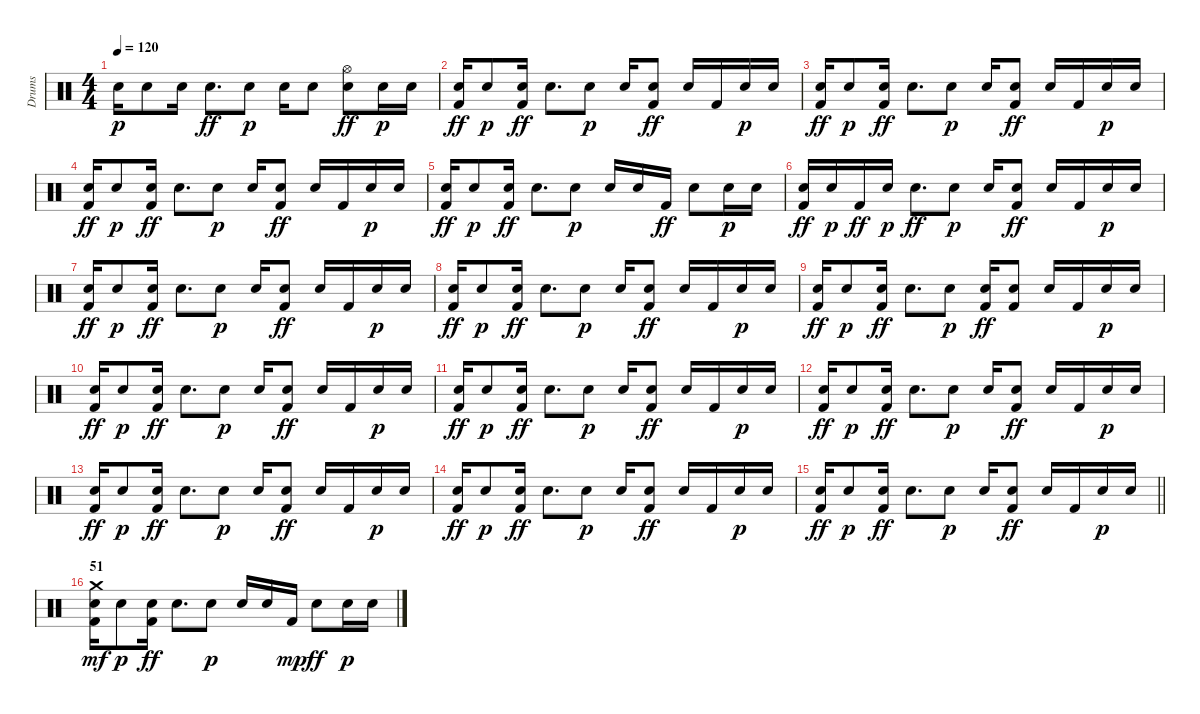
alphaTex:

\track ("Drums" "Drums") {instrument percussion}
\staff {score}
\articulation defaults
\ts (4 4)
\tempo 120
\clef neutral
\ks c "Snare (hit) 2".16{dy p} "Snare (hit) 2".8 "Snare (hit) 2".16 "Snare (hit) 2".8{d dy ff} "Snare (hit) 2".8{dy p} "Snare (hit) 2".16 "Snare (hit) 2".8
("Snare (hit) 2" "Hi-Hat (open)").8{dy ff} "Snare (hit) 2".16{dy p} "Snare (hit) 2".16 |
("Snare (hit) 2" "Kick (hit) 2").16{dy ff} "Snare (hit) 2".8{dy p} ("Snare (hit) 2" "Kick (hit) 2").16{dy ff} "Snare (hit) 2".8{d} "Snare (hit) 2".8{dy p} "Snare (hit) 2".16 ("Snare (hit) 2" "Kick (hit) 2").8{dy ff} "Snare (hit) 2".16 "Kick (hit) 2".16 "Snare (hit) 2".16{dy p} "Snare (hit) 2".16 |
("Snare (hit) 2" "Kick (hit) 2").16{dy ff} "Snare (hit) 2".8{dy p} ("Snare (hit) 2" "Kick (hit) 2").16{dy ff} "Snare (hit) 2".8{d} "Snare (hit) 2".8{dy p} "Snare (hit) 2".16 ("Snare (hit) 2" "Kick (hit) 2").8{dy ff} "Snare (hit) 2".16 "Kick (hit) 2".16 "Snare (hit) 2".16{dy p} "Snare (hit) 2".16 |
("Snare (hit) 2" "Kick (hit) 2").16{dy ff} "Snare (hit) 2".8{dy p} ("Snare (hit) 2" "Kick (hit) 2").16{dy ff} "Snare (hit) 2".8{d} "Snare (hit) 2".8{dy p} "Snare (hit) 2".16 ("Snare (hit) 2" "Kick (hit) 2").8{dy ff} "Snare (hit) 2".16 "Kick (hit) 2".16 "Snare (hit) 2".16{dy p} "Snare (hit) 2".16 |
("Snare (hit) 2" "Kick (hit) 2").16{dy ff} "Snare (hit) 2".8{dy p} ("Snare (hit) 2" "Kick (hit) 2").16{dy ff} "Snare (hit) 2".8{d} "Snare (hit) 2".8{dy p} "Snare (hit) 2".16 "Snare (hit) 2".16 "Kick (hit) 2".16{dy ff} "Snare (hit) 2".8 "Snare (hit) 2".16{dy p} "Snare (hit) 2".16 |
("Snare (hit) 2" "Kick (hit) 2").16{dy ff} "Snare (hit) 2".16{dy p} "Kick (hit) 2".16{dy ff} "Snare (hit) 2".16{dy p} "Snare (hit) 2".8{d dy ff} "Snare (hit) 2".8{dy p} "Snare (hit) 2".16 ("Snare (hit) 2" "Kick (hit) 2").8{dy ff} "Snare (hit) 2".16 "Kick (hit) 2".16 "Snare (hit) 2".16{dy p} "Snare (hit) 2".16 |
("Snare (hit) 2" "Kick (hit) 2").16{dy ff} "Snare (hit) 2".8{dy p} ("Snare (hit) 2" "Kick (hit) 2").16{dy ff} "Snare (hit) 2".8{d} "Snare (hit) 2".8{dy p} "Snare (hit) 2".16 ("Snare (hit) 2" "Kick (hit) 2").8{dy ff} "Snare (hit) 2".16 "Kick (hit) 2".16 "Snare (hit) 2".16{dy p} "Snare (hit) 2".16 |
("Snare (hit) 2" "Kick (hit) 2").16{dy ff} "Snare (hit) 2".8{dy p} ("Snare (hit) 2" "Kick (hit) 2").16{dy ff} "Snare (hit) 2".8{d} "Snare (hit) 2".8{dy p} "Snare (hit) 2".16 ("Snare (hit) 2" "Kick (hit) 2").8{dy ff} "Snare (hit) 2".16 "Kick (hit) 2".16 "Snare (hit) 2".16{dy p} "Snare (hit) 2".16 |
("Snare (hit) 2" "Kick (hit) 2").16{dy ff} "Snare (hit) 2".8{dy p} ("Snare (hit) 2" "Kick (hit) 2").16{dy ff} "Snare (hit) 2".8{d} "Snare (hit) 2".8{dy p} ("Snare (hit) 2" "Kick (hit) 2").16{dy ff} ("Snare (hit) 2" "Kick (hit) 2").8 "Snare (hit) 2".16 "Kick (hit) 2".16 "Snare (hit) 2".16{dy p} "Snare (hit) 2".16 |
("Snare (hit) 2" "Kick (hit) 2").16{dy ff} "Snare (hit) 2".8{dy p} ("Snare (hit) 2" "Kick (hit) 2").16{dy ff} "Snare (hit) 2".8{d} "Snare (hit) 2".8{dy p} "Snare (hit) 2".16 ("Snare (hit) 2" "Kick (hit) 2").8{dy ff} "Snare (hit) 2".16 "Kick (hit) 2".16 "Snare (hit) 2".16{dy p} "Snare (hit) 2".16 |
("Snare (hit) 2" "Kick (hit) 2").16{dy ff} "Snare (hit) 2".8{dy p} ("Snare (hit) 2" "Kick (hit) 2").16{dy ff} "Snare (hit) 2".8{d} "Snare (hit) 2".8{dy p} "Snare (hit) 2".16 ("Snare (hit) 2" "Kick (hit) 2").8{dy ff} "Snare (hit) 2".16 "Kick (hit) 2".16 "Snare (hit) 2".16{dy p} "Snare (hit) 2".16 |
("Snare (hit) 2" "Kick (hit) 2").16{dy ff} "Snare (hit) 2".8{dy p} ("Snare (hit) 2" "Kick (hit) 2").16{dy ff} "Snare (hit) 2".8{d} "Snare (hit) 2".8{dy p} "Snare (hit) 2".16 ("Snare (hit) 2" "Kick (hit) 2").8{dy ff} "Snare (hit) 2".16 "Kick (hit) 2".16 "Snare (hit) 2".16{dy p} "Snare (hit) 2".16 |
("Snare (hit) 2" "Kick (hit) 2").16{dy ff} "Snare (hit) 2".8{dy p} ("Snare (hit) 2" "Kick (hit) 2").16{dy ff} "Snare (hit) 2".8{d} "Snare (hit) 2".8{dy p} "Snare (hit) 2".16 ("Snare (hit) 2" "Kick (hit) 2").8{dy ff} "Snare (hit) 2".16 "Kick (hit) 2".16 "Snare (hit) 2".16{dy p} "Snare (hit) 2".16 |
("Snare (hit) 2" "Kick (hit) 2").16{dy ff} "Snare (hit) 2".8{dy p} ("Snare (hit) 2" "Kick (hit) 2").16{dy ff} "Snare (hit) 2".8{d} "Snare (hit) 2".8{dy p} "Snare (hit) 2".16 ("Snare (hit) 2" "Kick (hit) 2").8{dy ff} "Snare (hit) 2".16 "Kick (hit) 2".16 "Snare (hit) 2".16{dy p} "Snare (hit) 2".16 |
\barLineRight lightlight
("Snare (hit) 2" "Kick (hit) 2").16{dy ff} "Snare (hit) 2".8{dy p} ("Snare (hit) 2" "Kick (hit) 2").16{dy ff} "Snare (hit) 2".8{d} "Snare (hit) 2".8{dy p} "Snare (hit) 2".16 ("Snare (hit) 2" "Kick (hit) 2").8{dy ff} "Snare (hit) 2".16 "Kick (hit) 2".16 "Snare (hit) 2".16{dy p} "Snare (hit) 2".16 |
\section ("" "51")
("Snare (hit) 2" "Kick (hit) 2" "Crash medium (hit)").16{dy mf} "Snare (hit) 2".8{dy p} ("Snare (hit) 2" "Kick (hit) 2").16{dy ff} "Snare (hit) 2".8{d} "Snare (hit) 2".8{dy p} "Snare (hit) 2".16 "Snare (hit) 2".16 "Kick (hit) 2".16{dy mp} "Snare (hit) 2".8{dy ff} "Snare (hit) 2".16{dy p} "Snare (hit) 2".16
